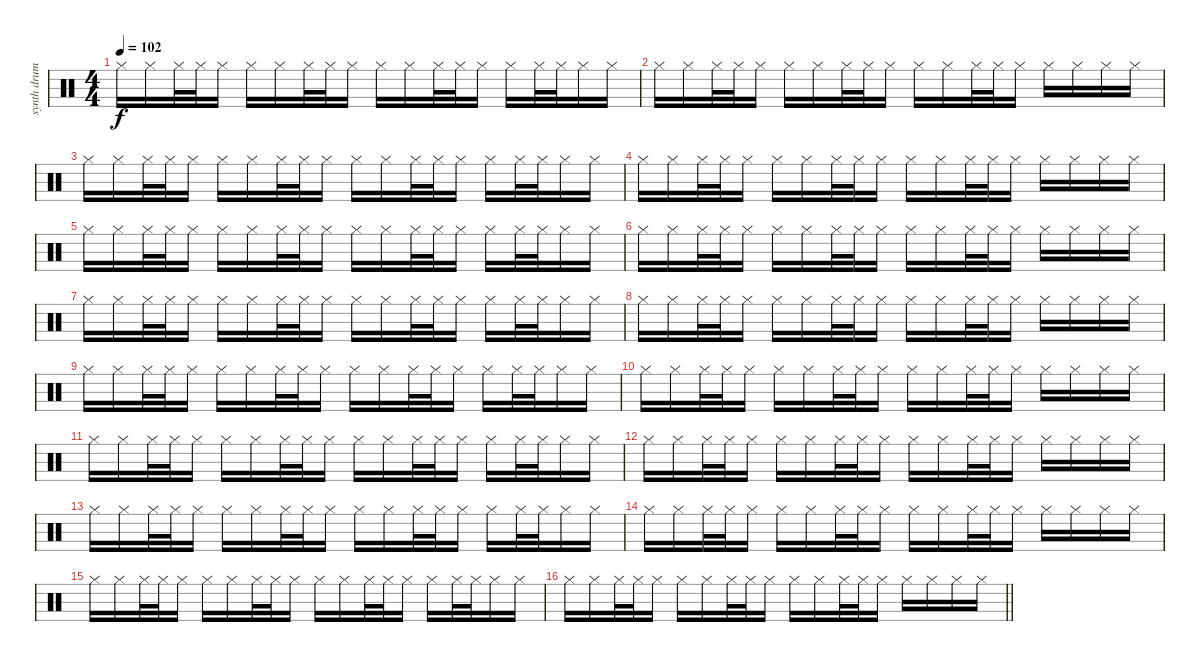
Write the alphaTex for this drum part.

\track ("synth drums" "synth drum") {instrument percussion}
\staff {score}
\articulation defaults
\ts (4 4)
\tempo 102
\clef neutral
\ks c "Hi-Hat (closed)".16{dy f} "Hi-Hat (closed)".16 "Hi-Hat (closed)".32 "Hi-Hat (closed)".32 "Hi-Hat (closed)".16 "Hi-Hat (closed)".16 "Hi-Hat (closed)".16 "Hi-Hat (closed)".32 "Hi-Hat (closed)".32 "Hi-Hat (closed)".16 "Hi-Hat (closed)".16 "Hi-Hat (closed)".16 "Hi-Hat (closed)".32 "Hi-Hat (closed)".32 "Hi-Hat (closed)".16 "Hi-Hat (closed)".16 "Hi-Hat (closed)".32 "Hi-Hat (closed)".32 "Hi-Hat (closed)".16 "Hi-Hat (closed)".16
|
"Hi-Hat (closed)".16 "Hi-Hat (closed)".16 "Hi-Hat (closed)".32 "Hi-Hat (closed)".32 "Hi-Hat (closed)".16 "Hi-Hat (closed)".16 "Hi-Hat (closed)".16 "Hi-Hat (closed)".32 "Hi-Hat (closed)".32 "Hi-Hat (closed)".16 "Hi-Hat (closed)".16 "Hi-Hat (closed)".16 "Hi-Hat (closed)".32 "Hi-Hat (closed)".32 "Hi-Hat (closed)".16 "Hi-Hat (closed)".16 "Hi-Hat (closed)".16 "Hi-Hat (closed)".16 "Hi-Hat (closed)".16 |
"Hi-Hat (closed)".16 "Hi-Hat (closed)".16 "Hi-Hat (closed)".32 "Hi-Hat (closed)".32 "Hi-Hat (closed)".16 "Hi-Hat (closed)".16 "Hi-Hat (closed)".16 "Hi-Hat (closed)".32 "Hi-Hat (closed)".32 "Hi-Hat (closed)".16 "Hi-Hat (closed)".16 "Hi-Hat (closed)".16 "Hi-Hat (closed)".32 "Hi-Hat (closed)".32 "Hi-Hat (closed)".16 "Hi-Hat (closed)".16 "Hi-Hat (closed)".32 "Hi-Hat (closed)".32 "Hi-Hat (closed)".16 "Hi-Hat (closed)".16 |
"Hi-Hat (closed)".16 "Hi-Hat (closed)".16 "Hi-Hat (closed)".32 "Hi-Hat (closed)".32 "Hi-Hat (closed)".16 "Hi-Hat (closed)".16 "Hi-Hat (closed)".16 "Hi-Hat (closed)".32 "Hi-Hat (closed)".32 "Hi-Hat (closed)".16 "Hi-Hat (closed)".16 "Hi-Hat (closed)".16 "Hi-Hat (closed)".32 "Hi-Hat (closed)".32 "Hi-Hat (closed)".16 "Hi-Hat (closed)".16 "Hi-Hat (closed)".16 "Hi-Hat (closed)".16 "Hi-Hat (closed)".16 |
"Hi-Hat (closed)".16 "Hi-Hat (closed)".16 "Hi-Hat (closed)".32 "Hi-Hat (closed)".32 "Hi-Hat (closed)".16 "Hi-Hat (closed)".16 "Hi-Hat (closed)".16 "Hi-Hat (closed)".32 "Hi-Hat (closed)".32 "Hi-Hat (closed)".16 "Hi-Hat (closed)".16 "Hi-Hat (closed)".16 "Hi-Hat (closed)".32 "Hi-Hat (closed)".32 "Hi-Hat (closed)".16 "Hi-Hat (closed)".16 "Hi-Hat (closed)".32 "Hi-Hat (closed)".32 "Hi-Hat (closed)".16 "Hi-Hat (closed)".16 |
"Hi-Hat (closed)".16 "Hi-Hat (closed)".16 "Hi-Hat (closed)".32 "Hi-Hat (closed)".32 "Hi-Hat (closed)".16 "Hi-Hat (closed)".16 "Hi-Hat (closed)".16 "Hi-Hat (closed)".32 "Hi-Hat (closed)".32 "Hi-Hat (closed)".16 "Hi-Hat (closed)".16 "Hi-Hat (closed)".16 "Hi-Hat (closed)".32 "Hi-Hat (closed)".32 "Hi-Hat (closed)".16 "Hi-Hat (closed)".16 "Hi-Hat (closed)".16 "Hi-Hat (closed)".16 "Hi-Hat (closed)".16 |
"Hi-Hat (closed)".16 "Hi-Hat (closed)".16 "Hi-Hat (closed)".32 "Hi-Hat (closed)".32 "Hi-Hat (closed)".16 "Hi-Hat (closed)".16 "Hi-Hat (closed)".16 "Hi-Hat (closed)".32 "Hi-Hat (closed)".32 "Hi-Hat (closed)".16 "Hi-Hat (closed)".16 "Hi-Hat (closed)".16 "Hi-Hat (closed)".32 "Hi-Hat (closed)".32 "Hi-Hat (closed)".16 "Hi-Hat (closed)".16 "Hi-Hat (closed)".32 "Hi-Hat (closed)".32 "Hi-Hat (closed)".16 "Hi-Hat (closed)".16 |
"Hi-Hat (closed)".16 "Hi-Hat (closed)".16 "Hi-Hat (closed)".32 "Hi-Hat (closed)".32 "Hi-Hat (closed)".16 "Hi-Hat (closed)".16 "Hi-Hat (closed)".16 "Hi-Hat (closed)".32 "Hi-Hat (closed)".32 "Hi-Hat (closed)".16 "Hi-Hat (closed)".16 "Hi-Hat (closed)".16 "Hi-Hat (closed)".32 "Hi-Hat (closed)".32 "Hi-Hat (closed)".16 "Hi-Hat (closed)".16 "Hi-Hat (closed)".16 "Hi-Hat (closed)".16 "Hi-Hat (closed)".16 |
"Hi-Hat (closed)".16 "Hi-Hat (closed)".16 "Hi-Hat (closed)".32 "Hi-Hat (closed)".32 "Hi-Hat (closed)".16 "Hi-Hat (closed)".16 "Hi-Hat (closed)".16 "Hi-Hat (closed)".32 "Hi-Hat (closed)".32 "Hi-Hat (closed)".16 "Hi-Hat (closed)".16 "Hi-Hat (closed)".16 "Hi-Hat (closed)".32 "Hi-Hat (closed)".32 "Hi-Hat (closed)".16 "Hi-Hat (closed)".16 "Hi-Hat (closed)".32 "Hi-Hat (closed)".32 "Hi-Hat (closed)".16 "Hi-Hat (closed)".16 |
"Hi-Hat (closed)".16 "Hi-Hat (closed)".16 "Hi-Hat (closed)".32 "Hi-Hat (closed)".32 "Hi-Hat (closed)".16 "Hi-Hat (closed)".16 "Hi-Hat (closed)".16 "Hi-Hat (closed)".32 "Hi-Hat (closed)".32 "Hi-Hat (closed)".16 "Hi-Hat (closed)".16 "Hi-Hat (closed)".16 "Hi-Hat (closed)".32 "Hi-Hat (closed)".32 "Hi-Hat (closed)".16 "Hi-Hat (closed)".16 "Hi-Hat (closed)".16 "Hi-Hat (closed)".16 "Hi-Hat (closed)".16 |
"Hi-Hat (closed)".16 "Hi-Hat (closed)".16 "Hi-Hat (closed)".32 "Hi-Hat (closed)".32 "Hi-Hat (closed)".16 "Hi-Hat (closed)".16 "Hi-Hat (closed)".16 "Hi-Hat (closed)".32 "Hi-Hat (closed)".32 "Hi-Hat (closed)".16 "Hi-Hat (closed)".16 "Hi-Hat (closed)".16 "Hi-Hat (closed)".32 "Hi-Hat (closed)".32 "Hi-Hat (closed)".16 "Hi-Hat (closed)".16 "Hi-Hat (closed)".32 "Hi-Hat (closed)".32 "Hi-Hat (closed)".16 "Hi-Hat (closed)".16 |
"Hi-Hat (closed)".16 "Hi-Hat (closed)".16 "Hi-Hat (closed)".32 "Hi-Hat (closed)".32 "Hi-Hat (closed)".16 "Hi-Hat (closed)".16 "Hi-Hat (closed)".16 "Hi-Hat (closed)".32 "Hi-Hat (closed)".32 "Hi-Hat (closed)".16 "Hi-Hat (closed)".16 "Hi-Hat (closed)".16 "Hi-Hat (closed)".32 "Hi-Hat (closed)".32 "Hi-Hat (closed)".16 "Hi-Hat (closed)".16 "Hi-Hat (closed)".16 "Hi-Hat (closed)".16 "Hi-Hat (closed)".16 |
"Hi-Hat (closed)".16 "Hi-Hat (closed)".16 "Hi-Hat (closed)".32 "Hi-Hat (closed)".32 "Hi-Hat (closed)".16 "Hi-Hat (closed)".16 "Hi-Hat (closed)".16 "Hi-Hat (closed)".32 "Hi-Hat (closed)".32 "Hi-Hat (closed)".16 "Hi-Hat (closed)".16 "Hi-Hat (closed)".16 "Hi-Hat (closed)".32 "Hi-Hat (closed)".32 "Hi-Hat (closed)".16 "Hi-Hat (closed)".16 "Hi-Hat (closed)".32 "Hi-Hat (closed)".32 "Hi-Hat (closed)".16 "Hi-Hat (closed)".16 |
"Hi-Hat (closed)".16 "Hi-Hat (closed)".16 "Hi-Hat (closed)".32 "Hi-Hat (closed)".32 "Hi-Hat (closed)".16 "Hi-Hat (closed)".16 "Hi-Hat (closed)".16 "Hi-Hat (closed)".32 "Hi-Hat (closed)".32 "Hi-Hat (closed)".16 "Hi-Hat (closed)".16 "Hi-Hat (closed)".16 "Hi-Hat (closed)".32 "Hi-Hat (closed)".32 "Hi-Hat (closed)".16 "Hi-Hat (closed)".16 "Hi-Hat (closed)".16 "Hi-Hat (closed)".16 "Hi-Hat (closed)".16 |
"Hi-Hat (closed)".16 "Hi-Hat (closed)".16 "Hi-Hat (closed)".32 "Hi-Hat (closed)".32 "Hi-Hat (closed)".16 "Hi-Hat (closed)".16 "Hi-Hat (closed)".16 "Hi-Hat (closed)".32 "Hi-Hat (closed)".32 "Hi-Hat (closed)".16 "Hi-Hat (closed)".16 "Hi-Hat (closed)".16 "Hi-Hat (closed)".32 "Hi-Hat (closed)".32 "Hi-Hat (closed)".16 "Hi-Hat (closed)".16 "Hi-Hat (closed)".32 "Hi-Hat (closed)".32 "Hi-Hat (closed)".16 "Hi-Hat (closed)".16 |
\barLineRight lightlight "Hi-Hat (closed)".16 "Hi-Hat (closed)".16 "Hi-Hat (closed)".32 "Hi-Hat (closed)".32 "Hi-Hat (closed)".16 "Hi-Hat (closed)".16 "Hi-Hat (closed)".16 "Hi-Hat (closed)".32 "Hi-Hat (closed)".32 "Hi-Hat (closed)".16 "Hi-Hat (closed)".16 "Hi-Hat (closed)".16 "Hi-Hat (closed)".32 "Hi-Hat (closed)".32 "Hi-Hat (closed)".16 "Hi-Hat (closed)".16 "Hi-Hat (closed)".16 "Hi-Hat (closed)".16 "Hi-Hat (closed)".16
